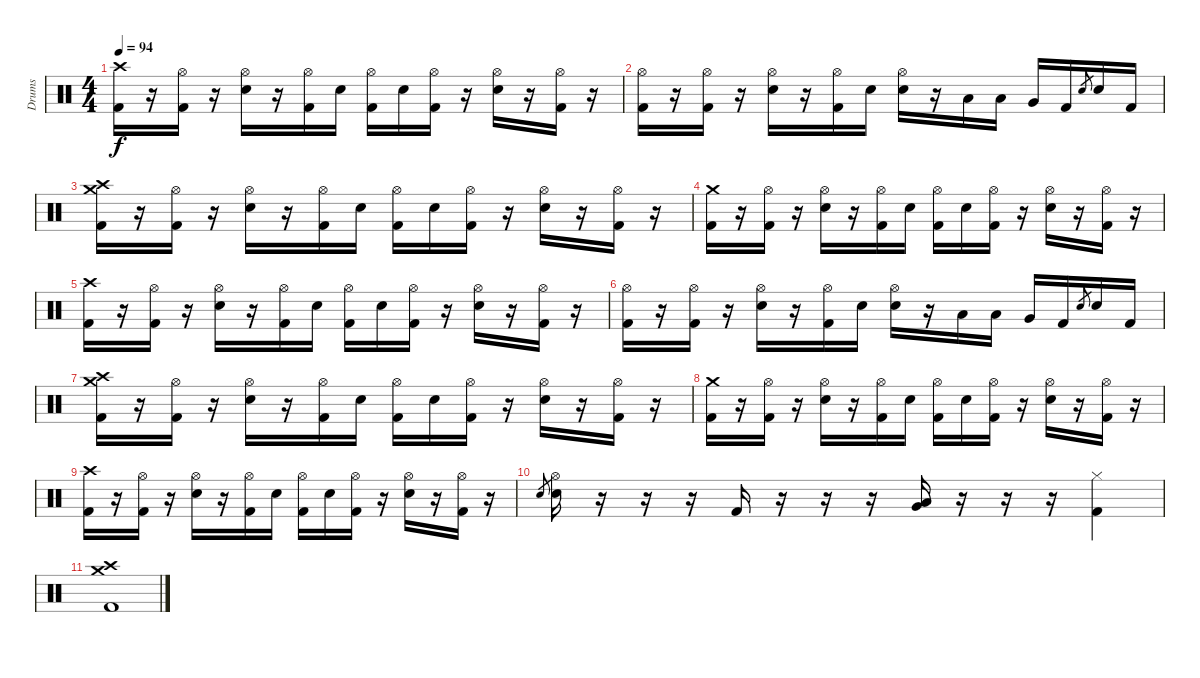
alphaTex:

\track ("Drums" "Drums") {instrument percussion}
\staff {score}
\articulation defaults
\ts (4 4)
\tempo 94
\clef neutral
\ks c
("Crash high (hit)" "Kick (hit) 2").16{dy f} r.16 ("Hi-Hat (open)" "Kick (hit) 2").16 r.16 ("Hi-Hat (open)" "Snare (hit) 2").16 r.16 ("Hi-Hat (open)" "Kick (hit) 2").16 "Snare (hit) 2".16 ("Hi-Hat (open)" "Kick (hit) 2").16 "Snare (hit) 2".16 ("Hi-Hat (open)" "Kick (hit) 2").16 r.16 ("Hi-Hat (open)" "Snare (hit) 2").16 r.16 ("Hi-Hat (open)" "Kick (hit) 2").16 r.16 |
("Hi-Hat (open)" "Kick (hit) 2").16 r.16 ("Hi-Hat (open)" "Kick (hit) 2").16 r.16 ("Hi-Hat (open)" "Snare (hit) 2").16 r.16 ("Hi-Hat (open)" "Kick (hit) 2").16 "Snare (hit) 2".16 ("Hi-Hat (open)" "Snare (hit) 2").16 r.16 "Low Tom (hit)".16 "Low Tom (hit)".16 "Very Low Tom (hit)".16 "Kick (hit) 2".16 "Snare (hit) 2".8{gr} "Snare (hit) 2".16 "Kick (hit) 2".16 |
("Crash high (hit)" "Crash medium (hit)" "Kick (hit) 2").16 r.16 ("Hi-Hat (open)" "Kick (hit) 2").16 r.16 ("Hi-Hat (open)" "Snare (hit) 2").16 r.16 ("Hi-Hat (open)" "Kick (hit) 2").16 "Snare (hit) 2".16 ("Hi-Hat (open)" "Kick (hit) 2").16 "Snare (hit) 2".16 ("Hi-Hat (open)" "Kick (hit) 2").16 r.16 ("Hi-Hat (open)" "Snare (hit) 2").16 r.16 ("Hi-Hat (open)" "Kick (hit) 2").16 r.16 |
("Crash medium (hit)" "Kick (hit) 2").16 r.16 ("Hi-Hat (open)" "Kick (hit) 2").16 r.16 ("Hi-Hat (open)" "Snare (hit) 2").16 r.16 ("Hi-Hat (open)" "Kick (hit) 2").16 "Snare (hit) 2".16 ("Hi-Hat (open)" "Kick (hit) 2").16 "Snare (hit) 2".16 ("Hi-Hat (open)" "Kick (hit) 2").16 r.16 ("Hi-Hat (open)" "Snare (hit) 2").16 r.16 ("Hi-Hat (open)" "Kick (hit) 2").16 r.16 |
("Crash high (hit)" "Kick (hit) 2").16 r.16 ("Hi-Hat (open)" "Kick (hit) 2").16 r.16 ("Hi-Hat (open)" "Snare (hit) 2").16 r.16 ("Hi-Hat (open)" "Kick (hit) 2").16 "Snare (hit) 2".16 ("Hi-Hat (open)" "Kick (hit) 2").16 "Snare (hit) 2".16 ("Hi-Hat (open)" "Kick (hit) 2").16 r.16 ("Hi-Hat (open)" "Snare (hit) 2").16 r.16 ("Hi-Hat (open)" "Kick (hit) 2").16 r.16 |
("Hi-Hat (open)" "Kick (hit) 2").16 r.16 ("Hi-Hat (open)" "Kick (hit) 2").16 r.16 ("Hi-Hat (open)" "Snare (hit) 2").16 r.16 ("Hi-Hat (open)" "Kick (hit) 2").16 "Snare (hit) 2".16 ("Hi-Hat (open)" "Snare (hit) 2").16 r.16 "Low Tom (hit)".16 "Low Tom (hit)".16 "Very Low Tom (hit)".16 "Kick (hit) 2".16 "Snare (hit) 2".8{gr} "Snare (hit) 2".16 "Kick (hit) 2".16 |
("Crash high (hit)" "Crash medium (hit)" "Kick (hit) 2").16 r.16 ("Hi-Hat (open)" "Kick (hit) 2").16 r.16 ("Hi-Hat (open)" "Snare (hit) 2").16 r.16 ("Hi-Hat (open)" "Kick (hit) 2").16 "Snare (hit) 2".16 ("Hi-Hat (open)" "Kick (hit) 2").16 "Snare (hit) 2".16 ("Hi-Hat (open)" "Kick (hit) 2").16 r.16 ("Hi-Hat (open)" "Snare (hit) 2").16 r.16 ("Hi-Hat (open)" "Kick (hit) 2").16 r.16 |
("Crash medium (hit)" "Kick (hit) 2").16 r.16 ("Hi-Hat (open)" "Kick (hit) 2").16 r.16 ("Hi-Hat (open)" "Snare (hit) 2").16 r.16 ("Hi-Hat (open)" "Kick (hit) 2").16 "Snare (hit) 2".16 ("Hi-Hat (open)" "Kick (hit) 2").16 "Snare (hit) 2".16 ("Hi-Hat (open)" "Kick (hit) 2").16 r.16 ("Hi-Hat (open)" "Snare (hit) 2").16 r.16 ("Hi-Hat (open)" "Kick (hit) 2").16 r.16 |
("Crash high (hit)" "Kick (hit) 2").16 r.16 ("Hi-Hat (open)" "Kick (hit) 2").16 r.16 ("Hi-Hat (open)" "Snare (hit) 2").16 r.16 ("Hi-Hat (open)" "Kick (hit) 2").16 "Snare (hit) 2".16 ("Hi-Hat (open)" "Kick (hit) 2").16 "Snare (hit) 2".16 ("Hi-Hat (open)" "Kick (hit) 2").16 r.16 ("Hi-Hat (open)" "Snare (hit) 2").16 r.16 ("Hi-Hat (open)" "Kick (hit) 2").16 r.16 |
"Snare (hit) 2".8{gr} ("Hi-Hat (open)" "Snare (hit) 2").16 r.16 r.16 r.16 "Kick (hit) 2".16 r.16 r.16 r.16 ("Low Tom (hit)" "Very Low Tom (hit)").16 r.16 r.16 r.16 ("Hi-Hat (closed)" "Kick (hit) 2").4 |
("Crash high (hit)" "Crash medium (hit)" "Kick (hit) 2").1
